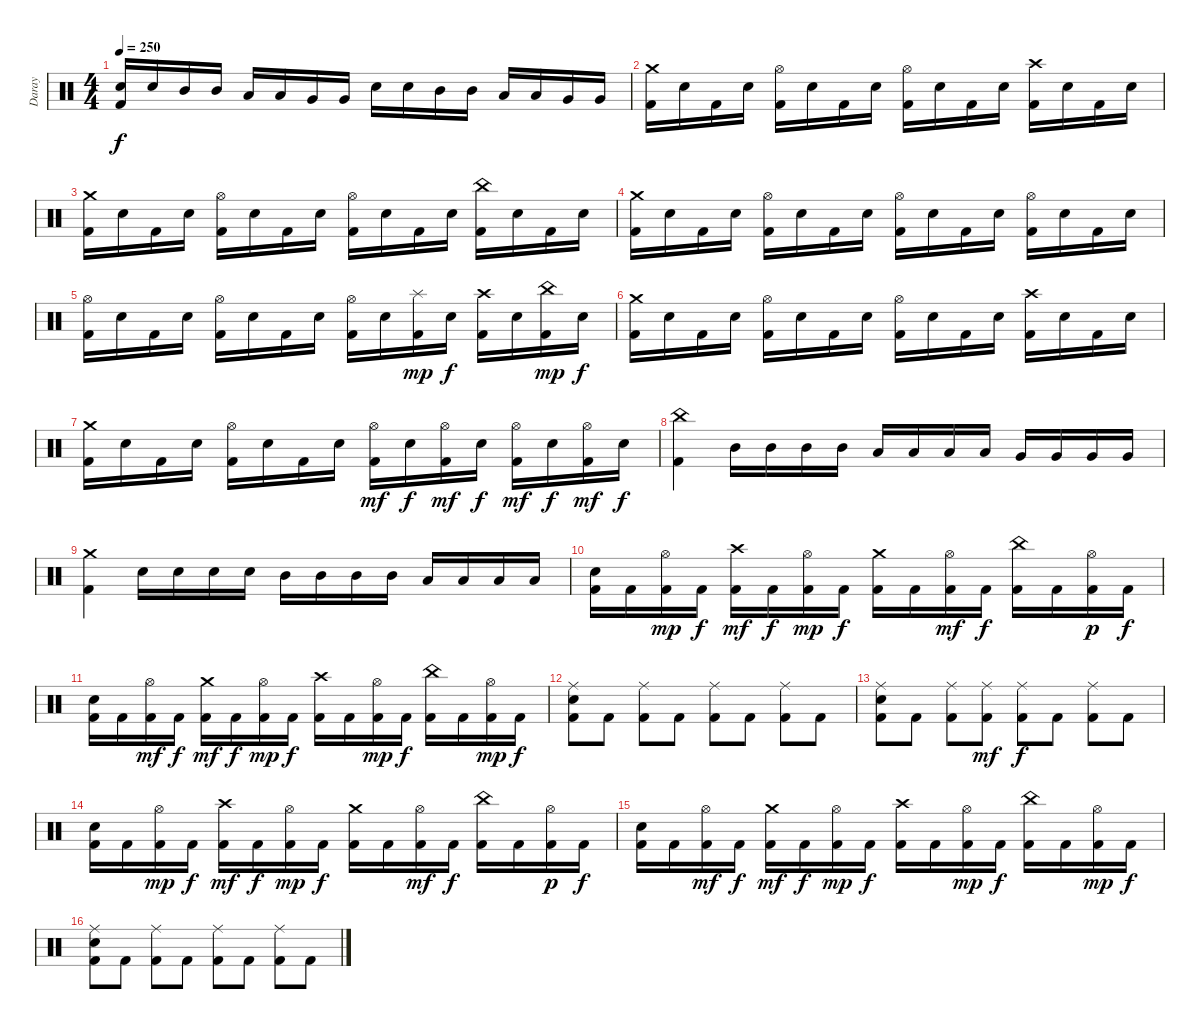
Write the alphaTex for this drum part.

\track ("Daray" "Daray") {instrument percussion}
\staff {score}
\articulation defaults
\ts (4 4)
\tempo 250
\clef neutral
\ks c
("Electric Snare (hit)" "Kick (hit) 2").16{dy f} "Electric Snare (hit)".16 "Mid Tom (hit)".16 "Mid Tom (hit)".16 "Low Tom (hit)".16 "Low Tom (hit)".16 "Very Low Tom (hit)".16 "Very Low Tom (hit)".16 "Electric Snare (hit)".16 "Electric Snare (hit)".16 "Mid Tom (hit)".16 "Mid Tom (hit)".16 "Low Tom (hit)".16 "Low Tom (hit)".16 "Very Low Tom (hit)".16 "Very Low Tom (hit)".16 |
("Crash medium (hit)" "Kick (hit) 2").16 "Electric Snare (hit)".16 "Kick (hit) 2".16 "Electric Snare (hit)".16 ("Hi-Hat (open)" "Kick (hit) 2").16 "Electric Snare (hit)".16 "Kick (hit) 2".16 "Electric Snare (hit)".16 ("Hi-Hat (open)" "Kick (hit) 2").16 "Electric Snare (hit)".16 "Kick (hit) 2".16 "Electric Snare (hit)".16 ("Crash high (hit)" "Kick (hit) 2").16 "Electric Snare (hit)".16 "Kick (hit) 2".16 "Electric Snare (hit)".16 |
("Crash medium (hit)" "Kick (hit) 2").16 "Electric Snare (hit)".16 "Kick (hit) 2".16 "Electric Snare (hit)".16 ("Hi-Hat (open)" "Kick (hit) 2").16 "Electric Snare (hit)".16 "Kick (hit) 2".16 "Electric Snare (hit)".16 ("Hi-Hat (open)" "Kick (hit) 2").16 "Electric Snare (hit)".16 "Kick (hit) 2".16 "Electric Snare (hit)".16 ("China (hit)" "Kick (hit) 2").16 "Electric Snare (hit)".16 "Kick (hit) 2".16 "Electric Snare (hit)".16 |
("Crash medium (hit)" "Kick (hit) 2").16 "Electric Snare (hit)".16 "Kick (hit) 2".16 "Electric Snare (hit)".16 ("Hi-Hat (open)" "Kick (hit) 2").16 "Electric Snare (hit)".16 "Kick (hit) 2".16 "Electric Snare (hit)".16 ("Hi-Hat (open)" "Kick (hit) 2").16 "Electric Snare (hit)".16 "Kick (hit) 2".16 "Electric Snare (hit)".16 ("Hi-Hat (open)" "Kick (hit) 2").16 "Electric Snare (hit)".16 "Kick (hit) 2".16 "Electric Snare (hit)".16 |
("Hi-Hat (open)" "Kick (hit) 2").16 "Electric Snare (hit)".16 "Kick (hit) 2".16 "Electric Snare (hit)".16 ("Hi-Hat (open)" "Kick (hit) 2").16 "Electric Snare (hit)".16 "Kick (hit) 2".16 "Electric Snare (hit)".16 ("Hi-Hat (open)" "Kick (hit) 2").16 "Electric Snare (hit)".16 ("Splash (hit)" "Kick (hit) 2").16{dy mp} "Electric Snare (hit)".16{dy f} ("Crash high (hit)" "Kick (hit) 2").16 "Electric Snare (hit)".16 ("China (hit)" "Kick (hit) 2").16{dy mp} "Electric Snare (hit)".16{dy f} |
("Crash medium (hit)" "Kick (hit) 2").16 "Electric Snare (hit)".16 "Kick (hit) 2".16 "Electric Snare (hit)".16 ("Hi-Hat (open)" "Kick (hit) 2").16 "Electric Snare (hit)".16 "Kick (hit) 2".16 "Electric Snare (hit)".16 ("Hi-Hat (open)" "Kick (hit) 2").16 "Electric Snare (hit)".16 "Kick (hit) 2".16 "Electric Snare (hit)".16 ("Crash high (hit)" "Kick (hit) 2").16 "Electric Snare (hit)".16 "Kick (hit) 2".16 "Electric Snare (hit)".16 |
("Crash medium (hit)" "Kick (hit) 2").16 "Electric Snare (hit)".16 "Kick (hit) 2".16 "Electric Snare (hit)".16 ("Hi-Hat (open)" "Kick (hit) 2").16 "Electric Snare (hit)".16 "Kick (hit) 2".16 "Electric Snare (hit)".16 ("Hi-Hat (open)" "Kick (hit) 2").16{dy mf} "Electric Snare (hit)".16{dy f} ("Hi-Hat (open)" "Kick (hit) 2").16{dy mf} "Electric Snare (hit)".16{dy f} ("Hi-Hat (open)" "Kick (hit) 2").16{dy mf} "Electric Snare (hit)".16{dy f} ("Hi-Hat (open)" "Kick (hit) 2").16{dy mf} "Electric Snare (hit)".16{dy f} |
("China (hit)" "Kick (hit) 2").4 "Mid Tom (hit)".16 "Mid Tom (hit)".16 "Mid Tom (hit)".16 "Mid Tom (hit)".16 "Low Tom (hit)".16 "Low Tom (hit)".16 "Low Tom (hit)".16 "Low Tom (hit)".16 "Very Low Tom (hit)".16 "Very Low Tom (hit)".16 "Very Low Tom (hit)".16 "Very Low Tom (hit)".16 |
("Crash medium (hit)" "Kick (hit) 2").4 "Electric Snare (hit)".16 "Electric Snare (hit)".16 "Electric Snare (hit)".16 "Electric Snare (hit)".16 "Mid Tom (hit)".16 "Mid Tom (hit)".16 "Mid Tom (hit)".16 "Mid Tom (hit)".16 "Low Tom (hit)".16 "Low Tom (hit)".16 "Low Tom (hit)".16 "Low Tom (hit)".16 |
("Electric Snare (hit)" "Kick (hit) 2").16 "Kick (hit) 2".16 ("Hi-Hat (open)" "Kick (hit) 2").16{dy mp} "Kick (hit) 2".16{dy f} ("Crash high (hit)" "Kick (hit) 2").16{dy mf} "Kick (hit) 2".16{dy f} ("Hi-Hat (open)" "Kick (hit) 2").16{dy mp} "Kick (hit) 2".16{dy f} ("Crash medium (hit)" "Kick (hit) 2").16 "Kick (hit) 2".16 ("Hi-Hat (open)" "Kick (hit) 2").16{dy mf} "Kick (hit) 2".16{dy f} ("China (hit)" "Kick (hit) 2").16 "Kick (hit) 2".16 ("Hi-Hat (open)" "Kick (hit) 2").16{dy p} "Kick (hit) 2".16{dy f} |
("Electric Snare (hit)" "Kick (hit) 2").16 "Kick (hit) 2".16 ("Hi-Hat (open)" "Kick (hit) 2").16{dy mf} "Kick (hit) 2".16{dy f} ("Crash medium (hit)" "Kick (hit) 2").16{dy mf} "Kick (hit) 2".16{dy f} ("Hi-Hat (open)" "Kick (hit) 2").16{dy mp} "Kick (hit) 2".16{dy f} ("Crash high (hit)" "Kick (hit) 2").16 "Kick (hit) 2".16 ("Hi-Hat (open)" "Kick (hit) 2").16{dy mp} "Kick (hit) 2".16{dy f} ("China (hit)" "Kick (hit) 2").16 "Kick (hit) 2".16 ("Hi-Hat (open)" "Kick (hit) 2").16{dy mp} "Kick (hit) 2".16{dy f} |
("Ride (middle)" "Electric Snare (hit)" "Kick (hit) 2").8 "Kick (hit) 2".8 ("Ride (middle)" "Kick (hit) 2").8 "Kick (hit) 2".8 ("Ride (middle)" "Kick (hit) 2").8 "Kick (hit) 2".8 ("Ride (middle)" "Kick (hit) 2").8 "Kick (hit) 2".8 |
("Ride (middle)" "Electric Snare (hit)" "Kick (hit) 2").8 "Kick (hit) 2".8 ("Ride (middle)" "Kick (hit) 2").8 ("Ride (middle)" "Kick (hit) 2").8{dy mf} ("Ride (middle)" "Kick (hit) 2").8{dy f} "Kick (hit) 2".8 ("Ride (middle)" "Kick (hit) 2").8 "Kick (hit) 2".8 |
("Electric Snare (hit)" "Kick (hit) 2").16 "Kick (hit) 2".16 ("Hi-Hat (open)" "Kick (hit) 2").16{dy mp} "Kick (hit) 2".16{dy f} ("Crash high (hit)" "Kick (hit) 2").16{dy mf} "Kick (hit) 2".16{dy f} ("Hi-Hat (open)" "Kick (hit) 2").16{dy mp} "Kick (hit) 2".16{dy f} ("Crash medium (hit)" "Kick (hit) 2").16 "Kick (hit) 2".16 ("Hi-Hat (open)" "Kick (hit) 2").16{dy mf} "Kick (hit) 2".16{dy f} ("China (hit)" "Kick (hit) 2").16 "Kick (hit) 2".16 ("Hi-Hat (open)" "Kick (hit) 2").16{dy p} "Kick (hit) 2".16{dy f} |
("Electric Snare (hit)" "Kick (hit) 2").16 "Kick (hit) 2".16 ("Hi-Hat (open)" "Kick (hit) 2").16{dy mf} "Kick (hit) 2".16{dy f} ("Crash medium (hit)" "Kick (hit) 2").16{dy mf} "Kick (hit) 2".16{dy f} ("Hi-Hat (open)" "Kick (hit) 2").16{dy mp} "Kick (hit) 2".16{dy f} ("Crash high (hit)" "Kick (hit) 2").16 "Kick (hit) 2".16 ("Hi-Hat (open)" "Kick (hit) 2").16{dy mp} "Kick (hit) 2".16{dy f} ("China (hit)" "Kick (hit) 2").16 "Kick (hit) 2".16 ("Hi-Hat (open)" "Kick (hit) 2").16{dy mp} "Kick (hit) 2".16{dy f} |
("Ride (middle)" "Electric Snare (hit)" "Kick (hit) 2").8 "Kick (hit) 2".8 ("Ride (middle)" "Kick (hit) 2").8 "Kick (hit) 2".8 ("Ride (middle)" "Kick (hit) 2").8 "Kick (hit) 2".8 ("Ride (middle)" "Kick (hit) 2").8 "Kick (hit) 2".8
